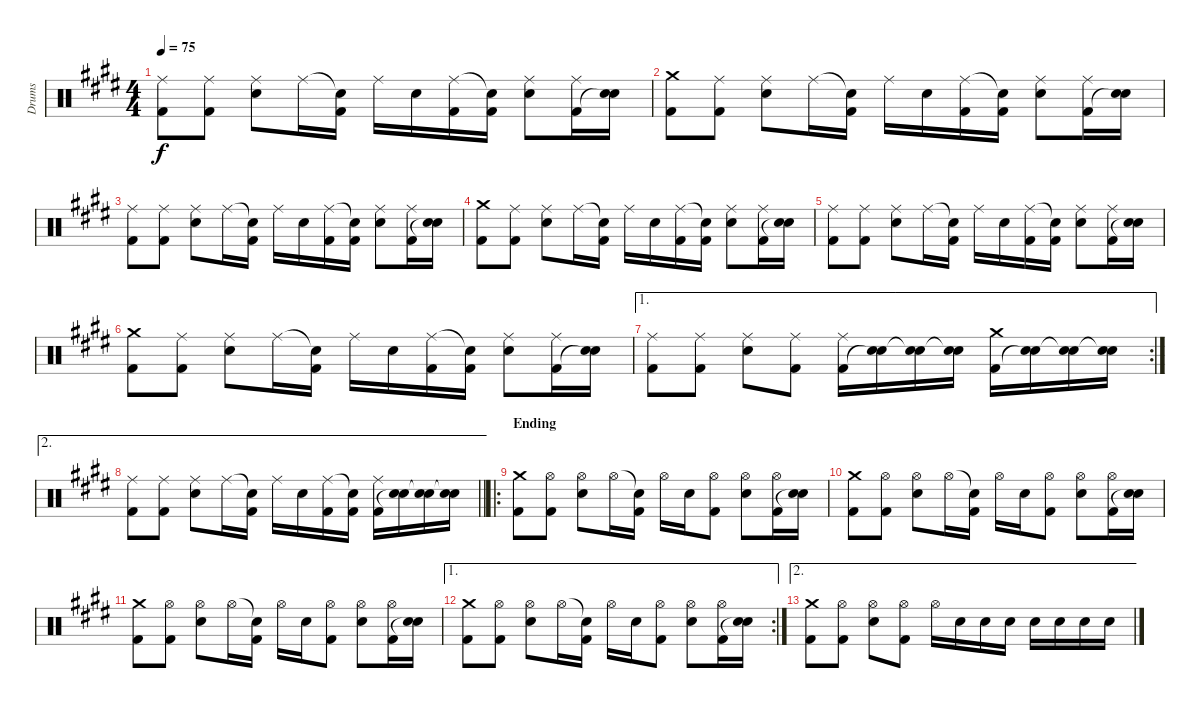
\track ("Drums" "Drums") {instrument percussion}
\staff {score}
\articulation defaults
\ts (4 4)
\tempo 75
\clef neutral
\ks c#minor
("Ride (middle)" "Kick (hit) 2").8{dy f} ("Ride (middle)" "Kick (hit) 2").8 ("Ride (middle)" "Electric Snare (hit)").8 "Ride (middle)".16 ("Snare (hit)"{t} "Kick (hit) 2").16 "Ride (middle)".16 "Electric Snare (hit)".16 ("Ride (middle)" "Kick (hit) 2").16 ("Snare (hit)"{t} "Kick (hit) 2").16 ("Ride (middle)" "Electric Snare (hit)").8 ("Ride (middle)" "Kick (hit) 2").16 ("Electric Snare (hit)" "Snare (hit)"{t}).16 |
("Crash medium (hit)" "Kick (hit) 2").8 ("Ride (middle)" "Kick (hit) 2").8 ("Ride (middle)" "Electric Snare (hit)").8 "Ride (middle)".16 ("Snare (hit)"{t} "Kick (hit) 2").16 "Ride (middle)".16 "Electric Snare (hit)".16 ("Ride (middle)" "Kick (hit) 2").16 ("Snare (hit)"{t} "Kick (hit) 2").16 ("Ride (middle)" "Electric Snare (hit)").8 ("Ride (middle)" "Kick (hit) 2").16 ("Electric Snare (hit)" "Snare (hit)"{t}).16 |
("Ride (middle)" "Kick (hit) 2").8 ("Ride (middle)" "Kick (hit) 2").8 ("Ride (middle)" "Electric Snare (hit)").8 "Ride (middle)".16 ("Snare (hit)"{t} "Kick (hit) 2").16 "Ride (middle)".16 "Electric Snare (hit)".16 ("Ride (middle)" "Kick (hit) 2").16 ("Snare (hit)"{t} "Kick (hit) 2").16 ("Ride (middle)" "Electric Snare (hit)").8 ("Ride (middle)" "Kick (hit) 2").16 ("Electric Snare (hit)" "Snare (hit)"{t}).16 |
("Crash medium (hit)" "Kick (hit) 2").8 ("Ride (middle)" "Kick (hit) 2").8 ("Ride (middle)" "Electric Snare (hit)").8 "Ride (middle)".16 ("Snare (hit)"{t} "Kick (hit) 2").16 "Ride (middle)".16 "Electric Snare (hit)".16 ("Ride (middle)" "Kick (hit) 2").16 ("Snare (hit)"{t} "Kick (hit) 2").16 ("Ride (middle)" "Electric Snare (hit)").8 ("Ride (middle)" "Kick (hit) 2").16 ("Electric Snare (hit)" "Snare (hit)"{t}).16 |
("Ride (middle)" "Kick (hit) 2").8 ("Ride (middle)" "Kick (hit) 2").8 ("Ride (middle)" "Electric Snare (hit)").8 "Ride (middle)".16 ("Snare (hit)"{t} "Kick (hit) 2").16 "Ride (middle)".16 "Electric Snare (hit)".16 ("Ride (middle)" "Kick (hit) 2").16 ("Snare (hit)"{t} "Kick (hit) 2").16 ("Ride (middle)" "Electric Snare (hit)").8 ("Ride (middle)" "Kick (hit) 2").16 ("Electric Snare (hit)" "Snare (hit)"{t}).16 |
("Crash medium (hit)" "Kick (hit) 2").8 ("Ride (middle)" "Kick (hit) 2").8 ("Ride (middle)" "Electric Snare (hit)").8 "Ride (middle)".16 ("Snare (hit)"{t} "Kick (hit) 2").16 "Ride (middle)".16 "Electric Snare (hit)".16 ("Ride (middle)" "Kick (hit) 2").16 ("Snare (hit)"{t} "Kick (hit) 2").16 ("Ride (middle)" "Electric Snare (hit)").8 ("Ride (middle)" "Kick (hit) 2").16 ("Electric Snare (hit)" "Snare (hit)"{t}).16 |
\ae 1
\rc 2
("Ride (middle)" "Kick (hit) 2").8 ("Ride (middle)" "Kick (hit) 2").8 ("Ride (middle)" "Electric Snare (hit)").8 ("Ride (middle)" "Kick (hit) 2").8 ("Ride (middle)" "Kick (hit) 2").16 ("Electric Snare (hit)" "Snare (hit)"{t}).16 ("Electric Snare (hit)" "Snare (hit)"{t}).16 ("Electric Snare (hit)" "Snare (hit)"{t}).16 ("Crash medium (hit)" "Kick (hit) 2").16 ("Electric Snare (hit)" "Snare (hit)"{t}).16 ("Electric Snare (hit)" "Snare (hit)"{t}).16 ("Electric Snare (hit)" "Snare (hit)"{t}).16 |
\ae 2
\barLineRight lightlight
("Ride (middle)" "Kick (hit) 2").8 ("Ride (middle)" "Kick (hit) 2").8 ("Ride (middle)" "Electric Snare (hit)").8 "Ride (middle)".16 ("Snare (hit)"{t} "Kick (hit) 2").16 "Ride (middle)".16 "Electric Snare (hit)".16 ("Ride (middle)" "Kick (hit) 2").16 ("Snare (hit)"{t} "Kick (hit) 2").16 ("Ride (middle)" "Kick (hit) 2").16 ("Electric Snare (hit)" "Snare (hit)"{t}).16 ("Electric Snare (hit)" "Snare (hit)"{t}).16 ("Electric Snare (hit)" "Snare (hit)"{t}).16 |
\ro
\section ("" "Ending")
("Crash medium (hit)" "Kick (hit) 2").8 ("Hi-Hat (open)" "Kick (hit) 2").8 ("Hi-Hat (open)" "Electric Snare (hit)").8 "Hi-Hat (open)".16 ("Snare (hit)"{t} "Kick (hit) 2").16 "Hi-Hat (open)".16 "Electric Snare (hit)".16 ("Hi-Hat (open)" "Kick (hit) 2").8 ("Hi-Hat (open)" "Electric Snare (hit)").8 ("Hi-Hat (open)" "Kick (hit) 2").16 ("Electric Snare (hit)" "Snare (hit)"{t}).16 |
("Crash medium (hit)" "Kick (hit) 2").8 ("Hi-Hat (open)" "Kick (hit) 2").8 ("Hi-Hat (open)" "Electric Snare (hit)").8 "Hi-Hat (open)".16 ("Snare (hit)"{t} "Kick (hit) 2").16 "Hi-Hat (open)".16 "Electric Snare (hit)".16 ("Hi-Hat (open)" "Kick (hit) 2").8 ("Hi-Hat (open)" "Electric Snare (hit)").8 ("Hi-Hat (open)" "Kick (hit) 2").16 ("Electric Snare (hit)" "Snare (hit)"{t}).16 |
("Crash medium (hit)" "Kick (hit) 2").8 ("Hi-Hat (open)" "Kick (hit) 2").8 ("Hi-Hat (open)" "Electric Snare (hit)").8 "Hi-Hat (open)".16 ("Snare (hit)"{t} "Kick (hit) 2").16 "Hi-Hat (open)".16 "Electric Snare (hit)".16 ("Hi-Hat (open)" "Kick (hit) 2").8 ("Hi-Hat (open)" "Electric Snare (hit)").8 ("Hi-Hat (open)" "Kick (hit) 2").16 ("Electric Snare (hit)" "Snare (hit)"{t}).16 |
\ae 1
\rc 2
("Crash medium (hit)" "Kick (hit) 2").8 ("Hi-Hat (open)" "Kick (hit) 2").8 ("Hi-Hat (open)" "Electric Snare (hit)").8 "Hi-Hat (open)".16 ("Snare (hit)"{t} "Kick (hit) 2").16 "Hi-Hat (open)".16 "Electric Snare (hit)".16 ("Hi-Hat (open)" "Kick (hit) 2").8 ("Hi-Hat (open)" "Electric Snare (hit)").8 ("Hi-Hat (open)" "Kick (hit) 2").16 ("Electric Snare (hit)" "Snare (hit)"{t}).16 |
\ae 2
("Crash medium (hit)" "Kick (hit) 2").8 ("Hi-Hat (open)" "Kick (hit) 2").8 ("Hi-Hat (open)" "Electric Snare (hit)").8 ("Hi-Hat (open)" "Kick (hit) 2").8 "Hi-Hat (open)".16 "Electric Snare (hit)".16 "Electric Snare (hit)".16 "Electric Snare (hit)".16 "Electric Snare (hit)".16 "Electric Snare (hit)".16 "Electric Snare (hit)".16 "Electric Snare (hit)".16
